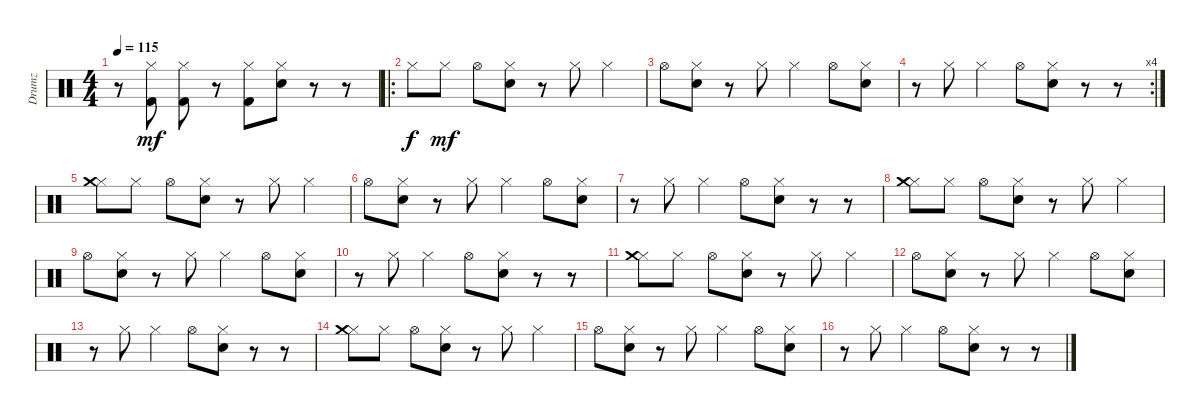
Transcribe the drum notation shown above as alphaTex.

\track ("Drumz" "Drumz") {instrument percussion}
\staff
\articulation defaults
\ts (4 4)
\tempo 115
\clef neutral
\ks c
r.8{dy mf} ("Hi-Hat (closed)" "Kick (hit) 2").8 ("Hi-Hat (closed)" "Kick (hit) 2").8 r.8 ("Hi-Hat (closed)" "Kick (hit) 2").8 ("Hi-Hat (closed)" "Snare (hit) 2").8 r.8 r.8 |
\ro "Hi-Hat (closed)".8{dy f} "Hi-Hat (closed)".8{dy mf} "Hi-Hat (open)".8
("Hi-Hat (closed)" "Snare (hit) 2").8 r.8 "Hi-Hat (closed)".8 "Hi-Hat (closed)".4 |
"Hi-Hat (open)".8 ("Hi-Hat (closed)" "Snare (hit) 2").8 r.8 "Hi-Hat (closed)".8 "Hi-Hat (closed)".4 "Hi-Hat (open)".8 ("Hi-Hat (closed)" "Snare (hit) 2").8 |
\rc 4
r.8 "Hi-Hat (closed)".8 "Hi-Hat (closed)".4 "Hi-Hat (open)".8 ("Hi-Hat (closed)" "Snare (hit) 2").8 r.8 r.8 |
("Hi-Hat (closed)" "Crash medium (hit)").8 "Hi-Hat (closed)".8 "Hi-Hat (open)".8 ("Hi-Hat (closed)" "Snare (hit) 2").8 r.8 "Hi-Hat (closed)".8 "Hi-Hat (closed)".4 |
"Hi-Hat (open)".8 ("Hi-Hat (closed)" "Snare (hit) 2").8 r.8 "Hi-Hat (closed)".8 "Hi-Hat (closed)".4 "Hi-Hat (open)".8 ("Hi-Hat (closed)" "Snare (hit) 2").8 |
r.8 "Hi-Hat (closed)".8 "Hi-Hat (closed)".4 "Hi-Hat (open)".8 ("Hi-Hat (closed)" "Snare (hit) 2").8 r.8 r.8 |
("Hi-Hat (closed)" "Crash medium (hit)").8 "Hi-Hat (closed)".8 "Hi-Hat (open)".8 ("Hi-Hat (closed)" "Snare (hit) 2").8 r.8 "Hi-Hat (closed)".8 "Hi-Hat (closed)".4 |
"Hi-Hat (open)".8 ("Hi-Hat (closed)" "Snare (hit) 2").8 r.8 "Hi-Hat (closed)".8 "Hi-Hat (closed)".4 "Hi-Hat (open)".8 ("Hi-Hat (closed)" "Snare (hit) 2").8 |
r.8 "Hi-Hat (closed)".8 "Hi-Hat (closed)".4 "Hi-Hat (open)".8 ("Hi-Hat (closed)" "Snare (hit) 2").8 r.8 r.8 |
("Hi-Hat (closed)" "Crash medium (hit)").8 "Hi-Hat (closed)".8 "Hi-Hat (open)".8 ("Hi-Hat (closed)" "Snare (hit) 2").8 r.8 "Hi-Hat (closed)".8 "Hi-Hat (closed)".4 |
"Hi-Hat (open)".8 ("Hi-Hat (closed)" "Snare (hit) 2").8 r.8 "Hi-Hat (closed)".8 "Hi-Hat (closed)".4 "Hi-Hat (open)".8 ("Hi-Hat (closed)" "Snare (hit) 2").8 |
r.8 "Hi-Hat (closed)".8 "Hi-Hat (closed)".4 "Hi-Hat (open)".8 ("Hi-Hat (closed)" "Snare (hit) 2").8 r.8 r.8 |
("Hi-Hat (closed)" "Crash medium (hit)").8 "Hi-Hat (closed)".8 "Hi-Hat (open)".8 ("Hi-Hat (closed)" "Snare (hit) 2").8 r.8 "Hi-Hat (closed)".8 "Hi-Hat (closed)".4 |
"Hi-Hat (open)".8 ("Hi-Hat (closed)" "Snare (hit) 2").8 r.8 "Hi-Hat (closed)".8 "Hi-Hat (closed)".4 "Hi-Hat (open)".8 ("Hi-Hat (closed)" "Snare (hit) 2").8 |
r.8 "Hi-Hat (closed)".8 "Hi-Hat (closed)".4 "Hi-Hat (open)".8 ("Hi-Hat (closed)" "Snare (hit) 2").8 r.8 r.8
